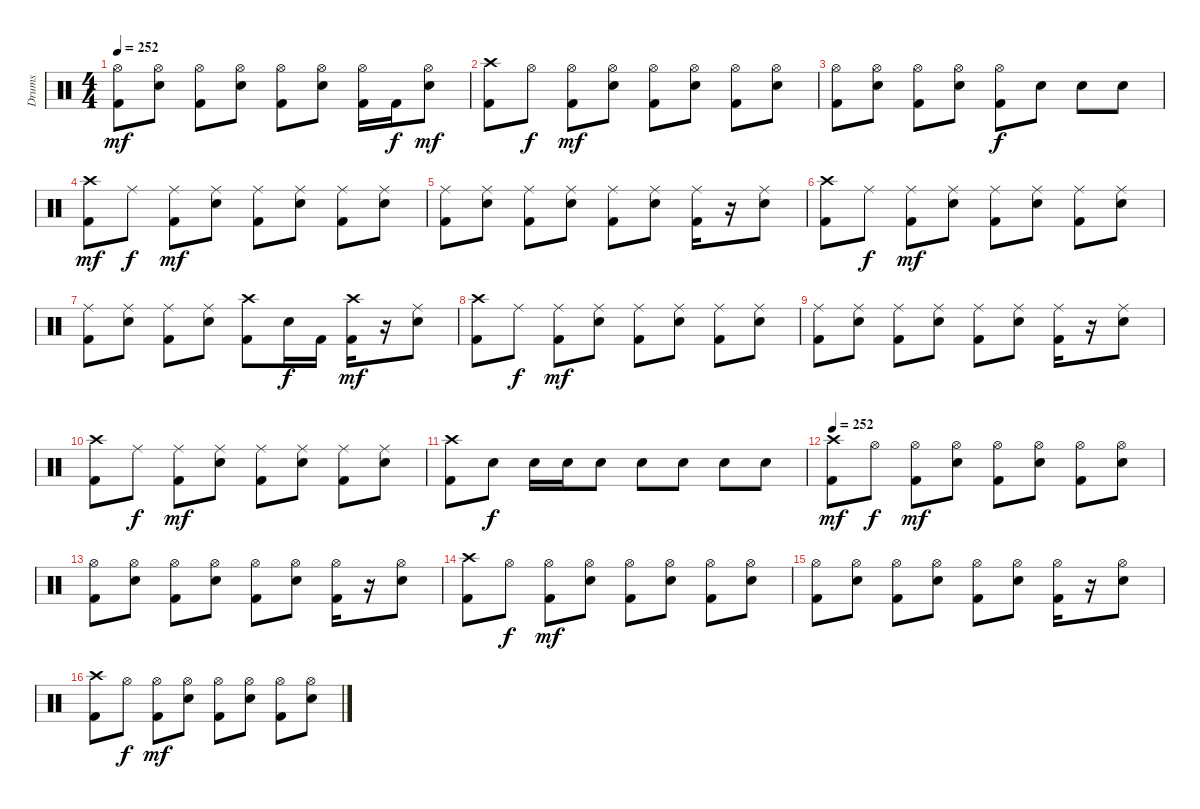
\track ("Drums" "Drums") {instrument percussion}
\staff {score}
\articulation defaults
\ts (4 4)
\tempo 252
\clef neutral
\ks c
("Hi-Hat (open)" "Kick (hit) 2").8{dy mf} ("Hi-Hat (open)" "Snare (hit) 2").8 ("Hi-Hat (open)" "Kick (hit) 2").8 ("Hi-Hat (open)" "Snare (hit) 2").8 ("Hi-Hat (open)" "Kick (hit) 2").8 ("Hi-Hat (open)" "Snare (hit) 2").8 ("Hi-Hat (open)" "Kick (hit) 2").16 "Kick (hit) 2".16{dy f} ("Hi-Hat (open)" "Snare (hit) 2").8{dy mf} |
("Crash high (hit)" "Kick (hit) 2").8 "Hi-Hat (open)".8{dy f} ("Hi-Hat (open)" "Kick (hit) 2").8{dy mf} ("Hi-Hat (open)" "Snare (hit) 2").8 ("Hi-Hat (open)" "Kick (hit) 2").8 ("Hi-Hat (open)" "Snare (hit) 2").8 ("Hi-Hat (open)" "Kick (hit) 2").8 ("Hi-Hat (open)" "Snare (hit) 2").8 |
("Hi-Hat (open)" "Kick (hit) 2").8 ("Hi-Hat (open)" "Snare (hit) 2").8 ("Hi-Hat (open)" "Kick (hit) 2").8 ("Hi-Hat (open)" "Snare (hit) 2").8 ("Hi-Hat (open)" "Kick (hit) 2").8{dy f} "Snare (hit) 2".8 "Snare (hit) 2".8 "Snare (hit) 2".8 |
("Crash high (hit)" "Kick (hit) 2").8{dy mf} "Ride (middle)".8{dy f} ("Ride (middle)" "Kick (hit) 2").8{dy mf} ("Ride (middle)" "Snare (hit) 2").8 ("Ride (middle)" "Kick (hit) 2").8 ("Ride (middle)" "Snare (hit) 2").8 ("Ride (middle)" "Kick (hit) 2").8 ("Ride (middle)" "Snare (hit) 2").8 |
("Ride (middle)" "Kick (hit) 2").8 ("Ride (middle)" "Snare (hit) 2").8 ("Ride (middle)" "Kick (hit) 2").8 ("Ride (middle)" "Snare (hit) 2").8 ("Ride (middle)" "Kick (hit) 2").8 ("Ride (middle)" "Snare (hit) 2").8 ("Ride (middle)" "Kick (hit) 2").16 r.16 ("Ride (middle)" "Snare (hit) 2").8 |
("Crash high (hit)" "Kick (hit) 2").8 "Ride (middle)".8{dy f} ("Ride (middle)" "Kick (hit) 2").8{dy mf} ("Ride (middle)" "Snare (hit) 2").8 ("Ride (middle)" "Kick (hit) 2").8 ("Ride (middle)" "Snare (hit) 2").8 ("Ride (middle)" "Kick (hit) 2").8 ("Ride (middle)" "Snare (hit) 2").8 |
("Ride (middle)" "Kick (hit) 2").8 ("Ride (middle)" "Snare (hit) 2").8 ("Ride (middle)" "Kick (hit) 2").8 ("Ride (middle)" "Snare (hit) 2").8 ("Crash high (hit)" "Kick (hit) 2").8 "Snare (hit) 2".16{dy f} "Kick (hit) 2".16 ("Crash high (hit)" "Kick (hit) 2").16{dy mf} r.16 ("Ride (middle)" "Snare (hit) 2").8 |
("Crash high (hit)" "Kick (hit) 2").8 "Ride (middle)".8{dy f} ("Ride (middle)" "Kick (hit) 2").8{dy mf} ("Ride (middle)" "Snare (hit) 2").8 ("Ride (middle)" "Kick (hit) 2").8 ("Ride (middle)" "Snare (hit) 2").8 ("Ride (middle)" "Kick (hit) 2").8 ("Ride (middle)" "Snare (hit) 2").8 |
("Ride (middle)" "Kick (hit) 2").8 ("Ride (middle)" "Snare (hit) 2").8 ("Ride (middle)" "Kick (hit) 2").8 ("Ride (middle)" "Snare (hit) 2").8 ("Ride (middle)" "Kick (hit) 2").8 ("Ride (middle)" "Snare (hit) 2").8 ("Ride (middle)" "Kick (hit) 2").16 r.16 ("Ride (middle)" "Snare (hit) 2").8 |
("Crash high (hit)" "Kick (hit) 2").8 "Ride (middle)".8{dy f} ("Ride (middle)" "Kick (hit) 2").8{dy mf} ("Ride (middle)" "Snare (hit) 2").8 ("Ride (middle)" "Kick (hit) 2").8 ("Ride (middle)" "Snare (hit) 2").8 ("Ride (middle)" "Kick (hit) 2").8 ("Ride (middle)" "Snare (hit) 2").8 |
("Crash high (hit)" "Kick (hit) 2").8 "Snare (hit) 2".8{dy f} "Snare (hit) 2".16 "Snare (hit) 2".16 "Snare (hit) 2".8 "Snare (hit) 2".8 "Snare (hit) 2".8 "Snare (hit) 2".8 "Snare (hit) 2".8 |
\tempo 252
("Crash high (hit)" "Kick (hit) 2").8{dy mf} "Hi-Hat (open)".8{dy f} ("Hi-Hat (open)" "Kick (hit) 2").8{dy mf} ("Hi-Hat (open)" "Snare (hit) 2").8 ("Hi-Hat (open)" "Kick (hit) 2").8 ("Hi-Hat (open)" "Snare (hit) 2").8 ("Hi-Hat (open)" "Kick (hit) 2").8 ("Hi-Hat (open)" "Snare (hit) 2").8 |
("Hi-Hat (open)" "Kick (hit) 2").8 ("Hi-Hat (open)" "Snare (hit) 2").8 ("Hi-Hat (open)" "Kick (hit) 2").8 ("Hi-Hat (open)" "Snare (hit) 2").8 ("Hi-Hat (open)" "Kick (hit) 2").8 ("Hi-Hat (open)" "Snare (hit) 2").8 ("Hi-Hat (open)" "Kick (hit) 2").16 r.16 ("Hi-Hat (open)" "Snare (hit) 2").8 |
("Crash high (hit)" "Kick (hit) 2").8 "Hi-Hat (open)".8{dy f} ("Hi-Hat (open)" "Kick (hit) 2").8{dy mf} ("Hi-Hat (open)" "Snare (hit) 2").8 ("Hi-Hat (open)" "Kick (hit) 2").8 ("Hi-Hat (open)" "Snare (hit) 2").8 ("Hi-Hat (open)" "Kick (hit) 2").8 ("Hi-Hat (open)" "Snare (hit) 2").8 |
("Hi-Hat (open)" "Kick (hit) 2").8 ("Hi-Hat (open)" "Snare (hit) 2").8 ("Hi-Hat (open)" "Kick (hit) 2").8 ("Hi-Hat (open)" "Snare (hit) 2").8 ("Hi-Hat (open)" "Kick (hit) 2").8 ("Hi-Hat (open)" "Snare (hit) 2").8 ("Hi-Hat (open)" "Kick (hit) 2").16 r.16 ("Hi-Hat (open)" "Snare (hit) 2").8 |
("Crash high (hit)" "Kick (hit) 2").8 "Hi-Hat (open)".8{dy f} ("Hi-Hat (open)" "Kick (hit) 2").8{dy mf} ("Hi-Hat (open)" "Snare (hit) 2").8 ("Hi-Hat (open)" "Kick (hit) 2").8 ("Hi-Hat (open)" "Snare (hit) 2").8 ("Hi-Hat (open)" "Kick (hit) 2").8 ("Hi-Hat (open)" "Snare (hit) 2").8
